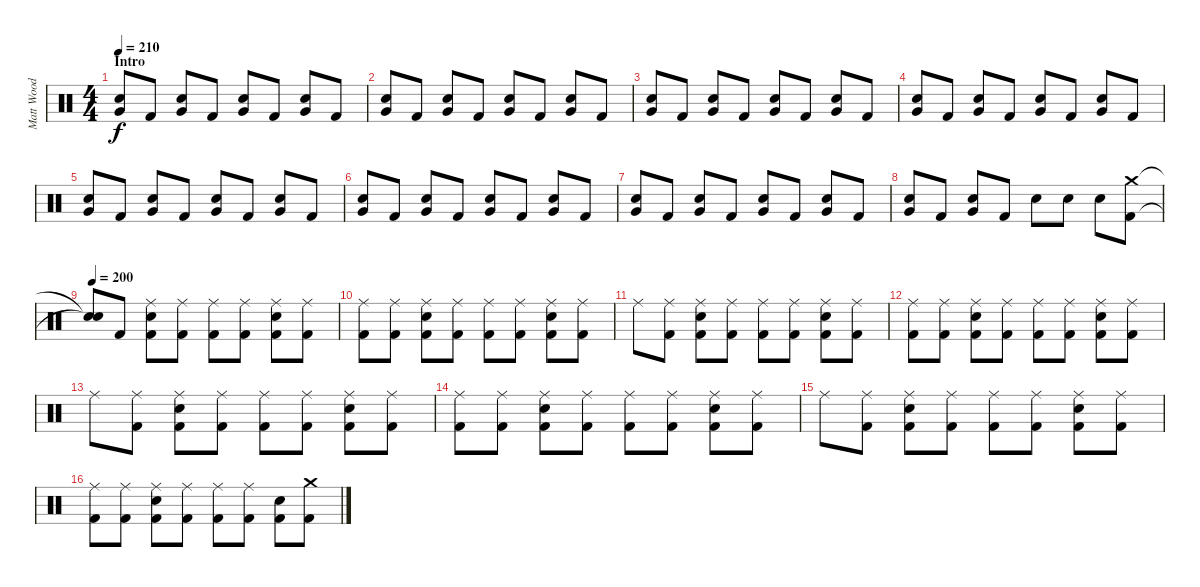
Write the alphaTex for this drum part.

\track ("Matt Wood" "Matt Wood") {instrument percussion}
\staff {score}
\articulation defaults
\ts (4 4)
\section ("" "Intro")
\tempo 210
\clef neutral
\ks c
("Snare (hit) 2" "Very Low Tom (hit)").8{dy f} "Kick (hit) 2".8 ("Snare (hit) 2" "Very Low Tom (hit)").8 "Kick (hit) 2".8 ("Snare (hit) 2" "Very Low Tom (hit)").8 "Kick (hit) 2".8 ("Snare (hit) 2" "Very Low Tom (hit)").8 "Kick (hit) 2".8 |
("Snare (hit) 2" "Very Low Tom (hit)").8 "Kick (hit) 2".8 ("Snare (hit) 2" "Very Low Tom (hit)").8 "Kick (hit) 2".8 ("Snare (hit) 2" "Very Low Tom (hit)").8 "Kick (hit) 2".8 ("Snare (hit) 2" "Very Low Tom (hit)").8 "Kick (hit) 2".8 |
("Snare (hit) 2" "Very Low Tom (hit)").8 "Kick (hit) 2".8 ("Snare (hit) 2" "Very Low Tom (hit)").8 "Kick (hit) 2".8 ("Snare (hit) 2" "Very Low Tom (hit)").8 "Kick (hit) 2".8 ("Snare (hit) 2" "Very Low Tom (hit)").8 "Kick (hit) 2".8 |
("Snare (hit) 2" "Very Low Tom (hit)").8 "Kick (hit) 2".8 ("Snare (hit) 2" "Very Low Tom (hit)").8 "Kick (hit) 2".8 ("Snare (hit) 2" "Very Low Tom (hit)").8 "Kick (hit) 2".8 ("Snare (hit) 2" "Very Low Tom (hit)").8 "Kick (hit) 2".8 |
("Snare (hit) 2" "Very Low Tom (hit)").8 "Kick (hit) 2".8 ("Snare (hit) 2" "Very Low Tom (hit)").8 "Kick (hit) 2".8 ("Snare (hit) 2" "Very Low Tom (hit)").8 "Kick (hit) 2".8 ("Snare (hit) 2" "Very Low Tom (hit)").8 "Kick (hit) 2".8 |
("Snare (hit) 2" "Very Low Tom (hit)").8 "Kick (hit) 2".8 ("Snare (hit) 2" "Very Low Tom (hit)").8 "Kick (hit) 2".8 ("Snare (hit) 2" "Very Low Tom (hit)").8 "Kick (hit) 2".8 ("Snare (hit) 2" "Very Low Tom (hit)").8 "Kick (hit) 2".8 |
("Snare (hit) 2" "Very Low Tom (hit)").8 "Kick (hit) 2".8 ("Snare (hit) 2" "Very Low Tom (hit)").8 "Kick (hit) 2".8 ("Snare (hit) 2" "Very Low Tom (hit)").8 "Kick (hit) 2".8 ("Snare (hit) 2" "Very Low Tom (hit)").8 "Kick (hit) 2".8 |
("Snare (hit) 2" "Very Low Tom (hit)").8 "Kick (hit) 2".8 ("Snare (hit) 2" "Very Low Tom (hit)").8 "Kick (hit) 2".8 "Snare (hit) 2".8 "Snare (hit) 2".8 "Snare (hit) 2".8 ("Crash medium (hit)" "Kick (hit) 2").8 |
\tempo 200
("Snare (hit)"{t} "Snare (hit)"{t}).8 "Kick (hit) 2".8 ("Ride (middle)" "Snare (hit) 2" "Kick (hit) 2").8 ("Ride (middle)" "Kick (hit) 2").8 ("Ride (middle)" "Kick (hit) 2").8 ("Ride (middle)" "Kick (hit) 2").8 ("Ride (middle)" "Snare (hit) 2" "Kick (hit) 2").8 ("Ride (middle)" "Kick (hit) 2").8 |
("Ride (middle)" "Kick (hit) 2").8 ("Ride (middle)" "Kick (hit) 2").8 ("Ride (middle)" "Snare (hit) 2" "Kick (hit) 2").8 ("Ride (middle)" "Kick (hit) 2").8 ("Ride (middle)" "Kick (hit) 2").8 ("Ride (middle)" "Kick (hit) 2").8 ("Ride (middle)" "Snare (hit) 2" "Kick (hit) 2").8 ("Ride (middle)" "Kick (hit) 2").8 |
"Ride (middle)".8 ("Ride (middle)" "Kick (hit) 2").8 ("Ride (middle)" "Snare (hit) 2" "Kick (hit) 2").8 ("Ride (middle)" "Kick (hit) 2").8 ("Ride (middle)" "Kick (hit) 2").8 ("Ride (middle)" "Kick (hit) 2").8 ("Ride (middle)" "Snare (hit) 2" "Kick (hit) 2").8 ("Ride (middle)" "Kick (hit) 2").8 |
("Ride (middle)" "Kick (hit) 2").8 ("Ride (middle)" "Kick (hit) 2").8 ("Ride (middle)" "Snare (hit) 2" "Kick (hit) 2").8 ("Ride (middle)" "Kick (hit) 2").8 ("Ride (middle)" "Kick (hit) 2").8 ("Ride (middle)" "Kick (hit) 2").8 ("Ride (middle)" "Snare (hit) 2" "Kick (hit) 2").8 ("Ride (middle)" "Kick (hit) 2").8 |
"Ride (middle)".8 ("Ride (middle)" "Kick (hit) 2").8 ("Ride (middle)" "Snare (hit) 2" "Kick (hit) 2").8 ("Ride (middle)" "Kick (hit) 2").8 ("Ride (middle)" "Kick (hit) 2").8 ("Ride (middle)" "Kick (hit) 2").8 ("Ride (middle)" "Snare (hit) 2" "Kick (hit) 2").8 ("Ride (middle)" "Kick (hit) 2").8 |
("Ride (middle)" "Kick (hit) 2").8 ("Ride (middle)" "Kick (hit) 2").8 ("Ride (middle)" "Snare (hit) 2" "Kick (hit) 2").8 ("Ride (middle)" "Kick (hit) 2").8 ("Ride (middle)" "Kick (hit) 2").8 ("Ride (middle)" "Kick (hit) 2").8 ("Ride (middle)" "Snare (hit) 2" "Kick (hit) 2").8 ("Ride (middle)" "Kick (hit) 2").8 |
"Ride (middle)".8 ("Ride (middle)" "Kick (hit) 2").8 ("Ride (middle)" "Snare (hit) 2" "Kick (hit) 2").8 ("Ride (middle)" "Kick (hit) 2").8 ("Ride (middle)" "Kick (hit) 2").8 ("Ride (middle)" "Kick (hit) 2").8 ("Ride (middle)" "Snare (hit) 2" "Kick (hit) 2").8 ("Ride (middle)" "Kick (hit) 2").8 |
("Ride (middle)" "Kick (hit) 2").8 ("Ride (middle)" "Kick (hit) 2").8 ("Ride (middle)" "Snare (hit) 2" "Kick (hit) 2").8 ("Ride (middle)" "Kick (hit) 2").8 ("Ride (middle)" "Kick (hit) 2").8 ("Ride (middle)" "Kick (hit) 2").8 ("Snare (hit) 2" "Kick (hit) 2").8 ("Crash medium (hit)" "Kick (hit) 2").8
